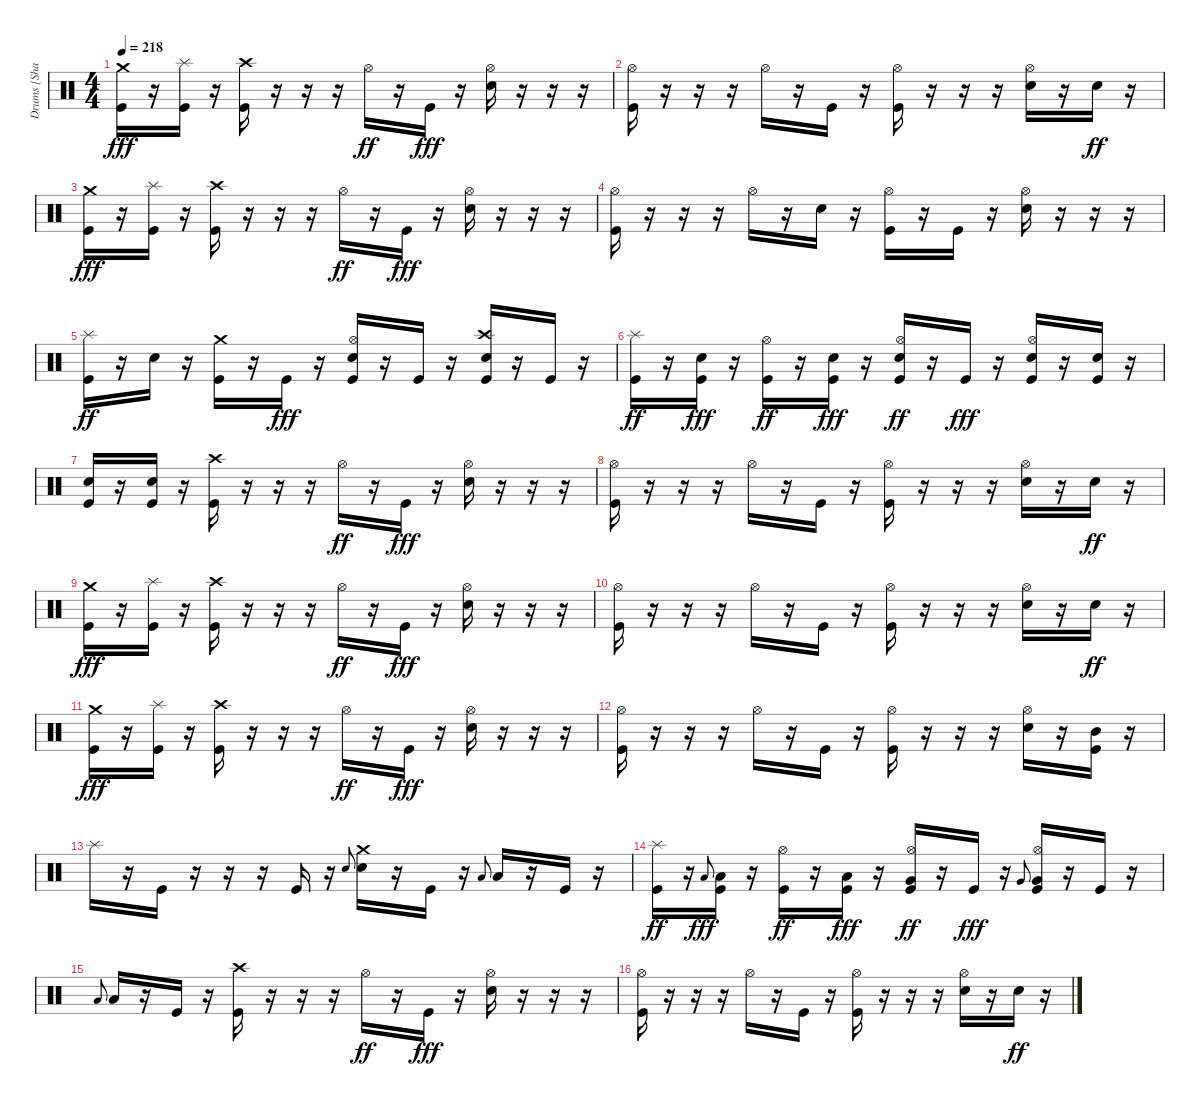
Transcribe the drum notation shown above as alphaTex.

\track ("Drums [Shannon Larkin]" "Drums [Sha") {instrument percussion}
\staff {score}
\articulation defaults
\ts (4 4)
\tempo 218
\clef neutral
\ks c
("Crash medium (hit)" "Kick (hit)").16{dy fff} r.16 ("Splash (hit)" "Kick (hit)").16 r.16 ("Crash high (hit)" "Kick (hit)").16 r.16 r.16 r.16 "Hi-Hat (open)".16{dy ff} r.16 "Kick (hit)".16{dy fff} r.16 ("Hi-Hat (open)" "Electric Snare (hit)").16 r.16 r.16 r.16 |
("Hi-Hat (open)" "Kick (hit)").16 r.16 r.16 r.16 "Hi-Hat (open)".16 r.16 "Kick (hit)".16 r.16 ("Hi-Hat (open)" "Kick (hit)").16 r.16 r.16 r.16 ("Hi-Hat (open)" "Electric Snare (hit)").16 r.16 "Electric Snare (hit)".16{dy ff} r.16 |
("Crash medium (hit)" "Kick (hit)").16{dy fff} r.16 ("Splash (hit)" "Kick (hit)").16 r.16 ("Crash high (hit)" "Kick (hit)").16 r.16 r.16 r.16 "Hi-Hat (open)".16{dy ff} r.16 "Kick (hit)".16{dy fff} r.16 ("Hi-Hat (open)" "Electric Snare (hit)").16 r.16 r.16 r.16 |
("Hi-Hat (open)" "Kick (hit)").16 r.16 r.16 r.16 "Hi-Hat (open)".16 r.16 "Electric Snare (hit)".16 r.16 ("Hi-Hat (open)" "Kick (hit)").16 r.16 "Kick (hit)".16 r.16 ("Hi-Hat (open)" "Electric Snare (hit)").16 r.16 r.16 r.16 |
("Splash (hit)" "Kick (hit)").16{dy ff} r.16 "Electric Snare (hit)".16 r.16 ("Crash medium (hit)" "Kick (hit)").16 r.16 "Kick (hit)".16{dy fff} r.16 ("Hi-Hat (open)" "Electric Snare (hit)" "Kick (hit)").16 r.16 "Kick (hit)".16 r.16 ("Crash high (hit)" "Electric Snare (hit)" "Kick (hit)").16 r.16 "Kick (hit)".16 r.16 |
("Splash (hit)" "Kick (hit)").16{dy ff} r.16 ("Electric Snare (hit)" "Kick (hit)").16{dy fff} r.16 ("Hi-Hat (open)" "Kick (hit)").16{dy ff} r.16 ("Electric Snare (hit)" "Kick (hit)").16{dy fff} r.16 ("Hi-Hat (open)" "Electric Snare (hit)" "Kick (hit)").16{dy ff} r.16 "Kick (hit)".16{dy fff} r.16 ("Hi-Hat (open)" "Electric Snare (hit)" "Kick (hit)").16 r.16 ("Electric Snare (hit)" "Kick (hit)").16 r.16 |
("Electric Snare (hit)" "Kick (hit)").16 r.16 ("Electric Snare (hit)" "Kick (hit)").16 r.16 ("Crash high (hit)" "Kick (hit)").16 r.16 r.16 r.16 "Hi-Hat (open)".16{dy ff} r.16 "Kick (hit)".16{dy fff} r.16 ("Hi-Hat (open)" "Electric Snare (hit)").16 r.16 r.16 r.16 |
("Hi-Hat (open)" "Kick (hit)").16 r.16 r.16 r.16 "Hi-Hat (open)".16 r.16 "Kick (hit)".16 r.16 ("Hi-Hat (open)" "Kick (hit)").16 r.16 r.16 r.16 ("Hi-Hat (open)" "Electric Snare (hit)").16 r.16 "Electric Snare (hit)".16{dy ff} r.16 |
("Crash medium (hit)" "Kick (hit)").16{dy fff} r.16 ("Splash (hit)" "Kick (hit)").16 r.16 ("Crash high (hit)" "Kick (hit)").16 r.16 r.16 r.16 "Hi-Hat (open)".16{dy ff} r.16 "Kick (hit)".16{dy fff} r.16 ("Hi-Hat (open)" "Electric Snare (hit)").16 r.16 r.16 r.16 |
("Hi-Hat (open)" "Kick (hit)").16 r.16 r.16 r.16 "Hi-Hat (open)".16 r.16 "Kick (hit)".16 r.16 ("Hi-Hat (open)" "Kick (hit)").16 r.16 r.16 r.16 ("Hi-Hat (open)" "Electric Snare (hit)").16 r.16 "Electric Snare (hit)".16{dy ff} r.16 |
("Crash medium (hit)" "Kick (hit)").16{dy fff} r.16 ("Splash (hit)" "Kick (hit)").16 r.16 ("Crash high (hit)" "Kick (hit)").16 r.16 r.16 r.16 "Hi-Hat (open)".16{dy ff} r.16 "Kick (hit)".16{dy fff} r.16 ("Hi-Hat (open)" "Electric Snare (hit)").16 r.16 r.16 r.16 |
("Hi-Hat (open)" "Kick (hit)").16 r.16 r.16 r.16 "Hi-Hat (open)".16 r.16 "Kick (hit)".16 r.16 ("Hi-Hat (open)" "Kick (hit)").16 r.16 r.16 r.16 ("Hi-Hat (open)" "Electric Snare (hit)").16 r.16 ("Mid Tom (hit)" "Kick (hit)").16 r.16 |
"Splash (hit)".16 r.16 "Kick (hit)".16 r.16 r.16 r.16 "Kick (hit)".16 r.16 "Electric Snare (hit)".8{gr onbeat} ("Crash medium (hit)" "Electric Snare (hit)").16 r.16 "Kick (hit)".16 r.16 "Low Tom (hit)".8{gr onbeat} "Low Tom (hit)".16 r.16 "Kick (hit)".16 r.16 |
("Splash (hit)" "Kick (hit)").16{dy ff} r.16 "Low Tom (hit)".8{gr onbeat dy fff} ("Low Tom (hit)" "Kick (hit)").16 r.16 ("Hi-Hat (open)" "Kick (hit)").16{dy ff} r.16 ("Low Tom (hit)" "Kick (hit)").16{dy fff} r.16 ("Hi-Hat (open)" "Very Low Tom (hit)" "Kick (hit)").16{dy ff} r.16 "Kick (hit)".16{dy fff} r.16 "Very Low Tom (hit)".8{gr onbeat} ("Hi-Hat (open)" "Very Low Tom (hit)" "Kick (hit)").16 r.16 "Kick (hit)".16 r.16 |
"Low Floor Tom (hit)".8{gr onbeat} "Low Floor Tom (hit)".16 r.16 "Kick (hit)".16 r.16 ("Crash high (hit)" "Kick (hit)").16 r.16 r.16 r.16 "Hi-Hat (open)".16{dy ff} r.16 "Kick (hit)".16{dy fff} r.16 ("Hi-Hat (open)" "Electric Snare (hit)").16 r.16 r.16 r.16 |
("Hi-Hat (open)" "Kick (hit)").16 r.16 r.16 r.16 "Hi-Hat (open)".16 r.16 "Kick (hit)".16 r.16 ("Hi-Hat (open)" "Kick (hit)").16 r.16 r.16 r.16 ("Hi-Hat (open)" "Electric Snare (hit)").16 r.16 "Electric Snare (hit)".16{dy ff} r.16
